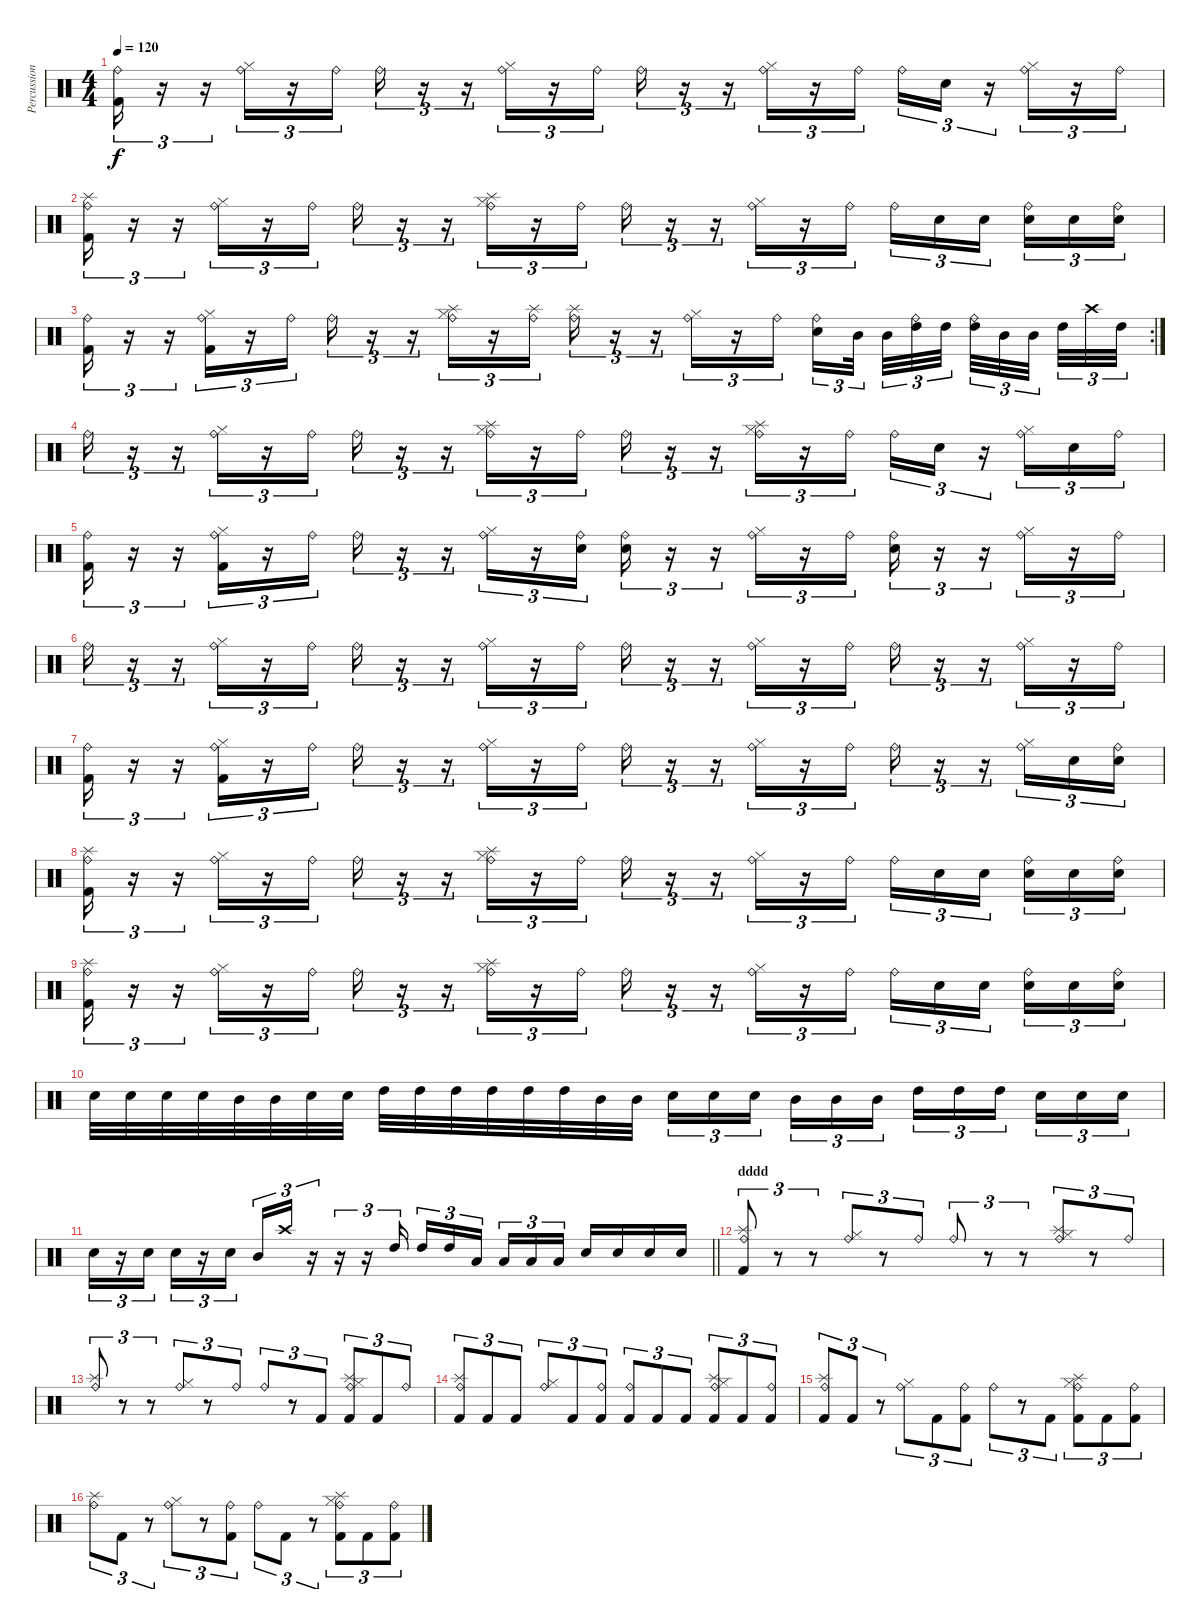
\track ("Percussion" "Percussion") {instrument percussion}
\staff {score}
\articulation defaults
\ts (4 4)
\tempo 120
\clef neutral
\ks c
("Kick (hit) 2" "Ride (bell)").16{tu (3 2) dy f} r.16{tu (3 2)} r.16{tu (3 2)} ("Hi-Hat (closed)" "Ride (bell)").16{tu (3 2)} r.16{tu (3 2)} "Ride (bell)".16{tu (3 2)} "Ride (bell)".16{tu (3 2)} r.16{tu (3 2)} r.16{tu (3 2)} ("Hi-Hat (closed)" "Ride (bell)").16{tu (3 2)} r.16{tu (3 2)} "Ride (bell)".16{tu (3 2)} "Ride (bell)".16{tu (3 2)} r.16{tu (3 2)} r.16{tu (3 2)} ("Hi-Hat (closed)" "Ride (bell)").16{tu (3 2)} r.16{tu (3 2)} "Ride (bell)".16{tu (3 2)} "Ride (bell)".16{tu (3 2)} "Snare (hit) 2".16{tu (3 2)} r.16{tu (3 2)} ("Hi-Hat (closed)" "Ride (bell)").16{tu (3 2)} r.16{tu (3 2)} "Ride (bell)".16{tu (3 2)} |
("Kick (hit) 2" "Ride (bell)" "Splash (hit)").16{tu (3 2)} r.16{tu (3 2)} r.16{tu (3 2)} ("Hi-Hat (closed)" "Ride (bell)").16{tu (3 2)} r.16{tu (3 2)} "Ride (bell)".16{tu (3 2)} "Ride (bell)".16{tu (3 2)} r.16{tu (3 2)} r.16{tu (3 2)} ("Hi-Hat (closed)" "Ride (bell)" "Splash (hit)").16{tu (3 2)} r.16{tu (3 2)} "Ride (bell)".16{tu (3 2)} "Ride (bell)".16{tu (3 2)} r.16{tu (3 2)} r.16{tu (3 2)} ("Hi-Hat (closed)" "Ride (bell)").16{tu (3 2)} r.16{tu (3 2)} "Ride (bell)".16{tu (3 2)} "Ride (bell)".16{tu (3 2)} "Snare (hit) 2".16{tu (3 2)} "Snare (hit) 2".16{tu (3 2) beam splitsecondary} ("Snare (hit) 2" "Ride (bell)").16{tu (3 2)} "Snare (hit) 2".16{tu (3 2)} ("Snare (hit) 2" "Ride (bell)").16{tu (3 2)} |
\rc 2
("Kick (hit) 2" "Ride (bell)").16{tu (3 2)} r.16{tu (3 2)} r.16{tu (3 2)} ("Hi-Hat (closed)" "Ride (bell)" "Kick (hit) 2").16{tu (3 2)} r.16{tu (3 2)} "Ride (bell)".16{tu (3 2)} "Ride (bell)".16{tu (3 2)} r.16{tu (3 2)} r.16{tu (3 2)} ("Hi-Hat (closed)" "Ride (bell)" "Splash (hit)").16{tu (3 2)} r.16{tu (3 2)} ("Ride (bell)" "Splash (hit)").16{tu (3 2)} ("Ride (bell)" "Splash (hit)").16{tu (3 2)} r.16{tu (3 2)} r.16{tu (3 2)} ("Hi-Hat (closed)" "Ride (bell)").16{tu (3 2)} r.16{tu (3 2)} "Ride (bell)".16{tu (3 2)} ("Snare (hit) 2" "Ride (bell)").16{tu (3 2)} "Mid Tom (hit)".32{tu (3 2) beam splitsecondary} "Mid Tom (hit)".32{tu (3 2)} ("High Tom (hit)" "Ride (bell)").32{tu (3 2)} "High Tom (hit)".32{tu (3 2) beam splitsecondary} ("High Tom (hit)" "Ride (bell)").32{tu (3 2)} "Mid Tom (hit)".32{tu (3 2)} "Mid Tom (hit)".32{tu (3 2) beam splitsecondary} "High Tom (hit)".32{tu (3 2)} "Crash high (hit)".32{tu (3 2)} "High Tom (hit)".32{tu (3 2)} |
"Ride (bell)".16{tu (3 2)} r.16{tu (3 2)} r.16{tu (3 2)} ("Hi-Hat (closed)" "Ride (bell)").16{tu (3 2)} r.16{tu (3 2)} "Ride (bell)".16{tu (3 2)} "Ride (bell)".16{tu (3 2)} r.16{tu (3 2)} r.16{tu (3 2)} ("Hi-Hat (closed)" "Ride (bell)" "Splash (hit)").16{tu (3 2)} r.16{tu (3 2)} "Ride (bell)".16{tu (3 2)} "Ride (bell)".16{tu (3 2)} r.16{tu (3 2)} r.16{tu (3 2)} ("Hi-Hat (closed)" "Ride (bell)" "Splash (hit)").16{tu (3 2)} r.16{tu (3 2)} "Ride (bell)".16{tu (3 2)} "Ride (bell)".16{tu (3 2)} "Snare (hit) 2".16{tu (3 2)} r.16{tu (3 2)} ("Hi-Hat (closed)" "Ride (bell)").16{tu (3 2)} "Snare (hit) 2".16{tu (3 2)} "Ride (bell)".16{tu (3 2)} |
("Kick (hit) 2" "Ride (bell)").16{tu (3 2)} r.16{tu (3 2)} r.16{tu (3 2)} ("Hi-Hat (closed)" "Ride (bell)" "Kick (hit) 2").16{tu (3 2)} r.16{tu (3 2)} "Ride (bell)".16{tu (3 2)} "Ride (bell)".16{tu (3 2)} r.16{tu (3 2)} r.16{tu (3 2)} ("Hi-Hat (closed)" "Ride (bell)").16{tu (3 2)} r.16{tu (3 2)} ("Snare (hit) 2" "Ride (bell)").16{tu (3 2)} ("Snare (hit) 2" "Ride (bell)").16{tu (3 2)} r.16{tu (3 2)} r.16{tu (3 2)} ("Hi-Hat (closed)" "Ride (bell)").16{tu (3 2)} r.16{tu (3 2)} "Ride (bell)".16{tu (3 2)} ("Snare (hit) 2" "Ride (bell)").16{tu (3 2)} r.16{tu (3 2)} r.16{tu (3 2)} ("Hi-Hat (closed)" "Ride (bell)").16{tu (3 2)} r.16{tu (3 2)} "Ride (bell)".16{tu (3 2)} |
"Ride (bell)".16{tu (3 2)} r.16{tu (3 2)} r.16{tu (3 2)} ("Hi-Hat (closed)" "Ride (bell)").16{tu (3 2)} r.16{tu (3 2)} "Ride (bell)".16{tu (3 2)} "Ride (bell)".16{tu (3 2)} r.16{tu (3 2)} r.16{tu (3 2)} ("Hi-Hat (closed)" "Ride (bell)").16{tu (3 2)} r.16{tu (3 2)} "Ride (bell)".16{tu (3 2)} "Ride (bell)".16{tu (3 2)} r.16{tu (3 2)} r.16{tu (3 2)} ("Hi-Hat (closed)" "Ride (bell)").16{tu (3 2)} r.16{tu (3 2)} "Ride (bell)".16{tu (3 2)} "Ride (bell)".16{tu (3 2)} r.16{tu (3 2)} r.16{tu (3 2)} ("Hi-Hat (closed)" "Ride (bell)").16{tu (3 2)} r.16{tu (3 2)} "Ride (bell)".16{tu (3 2)} |
("Kick (hit) 2" "Ride (bell)").16{tu (3 2)} r.16{tu (3 2)} r.16{tu (3 2)} ("Hi-Hat (closed)" "Ride (bell)" "Kick (hit) 2").16{tu (3 2)} r.16{tu (3 2)} "Ride (bell)".16{tu (3 2)} "Ride (bell)".16{tu (3 2)} r.16{tu (3 2)} r.16{tu (3 2)} ("Hi-Hat (closed)" "Ride (bell)").16{tu (3 2)} r.16{tu (3 2)} "Ride (bell)".16{tu (3 2)} "Ride (bell)".16{tu (3 2)} r.16{tu (3 2)} r.16{tu (3 2)} ("Hi-Hat (closed)" "Ride (bell)").16{tu (3 2)} r.16{tu (3 2)} "Ride (bell)".16{tu (3 2)} "Ride (bell)".16{tu (3 2)} r.16{tu (3 2)} r.16{tu (3 2)} ("Hi-Hat (closed)" "Ride (bell)").16{tu (3 2)} "Snare (hit) 2".16{tu (3 2)} ("Snare (hit) 2" "Ride (bell)").16{tu (3 2)} |
("Kick (hit) 2" "Ride (bell)" "Splash (hit)").16{tu (3 2)} r.16{tu (3 2)} r.16{tu (3 2)} ("Hi-Hat (closed)" "Ride (bell)").16{tu (3 2)} r.16{tu (3 2)} "Ride (bell)".16{tu (3 2)} "Ride (bell)".16{tu (3 2)} r.16{tu (3 2)} r.16{tu (3 2)} ("Hi-Hat (closed)" "Ride (bell)" "Splash (hit)").16{tu (3 2)} r.16{tu (3 2)} "Ride (bell)".16{tu (3 2)} "Ride (bell)".16{tu (3 2)} r.16{tu (3 2)} r.16{tu (3 2)} ("Hi-Hat (closed)" "Ride (bell)").16{tu (3 2)} r.16{tu (3 2)} "Ride (bell)".16{tu (3 2)} "Ride (bell)".16{tu (3 2)} "Snare (hit) 2".16{tu (3 2)} "Snare (hit) 2".16{tu (3 2) beam splitsecondary} ("Snare (hit) 2" "Ride (bell)").16{tu (3 2)} "Snare (hit) 2".16{tu (3 2)} ("Snare (hit) 2" "Ride (bell)").16{tu (3 2)} |
("Kick (hit) 2" "Ride (bell)" "Splash (hit)").16{tu (3 2)} r.16{tu (3 2)} r.16{tu (3 2)} ("Hi-Hat (closed)" "Ride (bell)").16{tu (3 2)} r.16{tu (3 2)} "Ride (bell)".16{tu (3 2)} "Ride (bell)".16{tu (3 2)} r.16{tu (3 2)} r.16{tu (3 2)} ("Hi-Hat (closed)" "Ride (bell)" "Splash (hit)").16{tu (3 2)} r.16{tu (3 2)} "Ride (bell)".16{tu (3 2)} "Ride (bell)".16{tu (3 2)} r.16{tu (3 2)} r.16{tu (3 2)} ("Hi-Hat (closed)" "Ride (bell)").16{tu (3 2)} r.16{tu (3 2)} "Ride (bell)".16{tu (3 2)} "Ride (bell)".16{tu (3 2)} "Snare (hit) 2".16{tu (3 2)} "Snare (hit) 2".16{tu (3 2) beam splitsecondary} ("Snare (hit) 2" "Ride (bell)").16{tu (3 2)} "Snare (hit) 2".16{tu (3 2)} ("Snare (hit) 2" "Ride (bell)").16{tu (3 2)} |
"Snare (hit) 2".32 "Snare (hit) 2".32 "Snare (hit) 2".32 "Snare (hit) 2".32 "Mid Tom (hit)".32 "Mid Tom (hit)".32 "Snare (hit) 2".32 "Snare (hit) 2".32 "High Tom (hit)".32 "High Tom (hit)".32 "High Tom (hit)".32 "High Tom (hit)".32 "High Tom (hit)".32 "High Tom (hit)".32 "Mid Tom (hit)".32 "Mid Tom (hit)".32 "Snare (hit) 2".16{tu (3 2)} "Snare (hit) 2".16{tu (3 2)} "Snare (hit) 2".16{tu (3 2) beam splitsecondary} "Mid Tom (hit)".16{tu (3 2)} "Mid Tom (hit)".16{tu (3 2)} "Mid Tom (hit)".16{tu (3 2)} "High Tom (hit)".16{tu (3 2)} "High Tom (hit)".16{tu (3 2)} "High Tom (hit)".16{tu (3 2) beam splitsecondary} "Snare (hit) 2".16{tu (3 2)} "Snare (hit) 2".16{tu (3 2)} "Snare (hit) 2".16{tu (3 2)} |
\barLineRight lightlight "Snare (hit) 2".16{tu (3 2)}
r.16{tu (3 2)} "Snare (hit) 2".16{tu (3 2)} "Snare (hit) 2".16{tu (3 2)} r.16{tu (3 2)} "Snare (hit) 2".16{tu (3 2)} "Mid Tom (hit)".16{tu (3 2) beam Up} "Crash high (hit)".16{tu (3 2) beam Up} r.16{tu (3 2) beam Up} r.16{tu (3 2) beam Up} r.16{tu (3 2) beam Up} "High Tom (hit)".16{tu (3 2) beam Up} "High Tom (hit)".16{tu (3 2) beam Up} "High Tom (hit)".16{tu (3 2) beam Up} "Low Tom (hit)".16{tu (3 2) beam Up beam splitsecondary} "Low Tom (hit)".16{tu (3 2) beam Up} "Low Tom (hit)".16{tu (3 2) beam Up} "Low Tom (hit)".16{tu (3 2) beam Up} "Snare (hit) 2".16{beam Up} "Snare (hit) 2".16{beam Up} "Snare (hit) 2".16{beam Up} "Snare (hit) 2".16{beam Up} |
\section ("" "dddd")
("Kick (hit) 2" "Ride (bell)" "Splash (hit)").8{tu (3 2) beam Up} r.8{tu (3 2) beam Up} r.8{tu (3 2) beam Up} ("Hi-Hat (closed)" "Ride (bell)").8{tu (3 2) beam Up} r.8{tu (3 2) beam Up} "Ride (bell)".8{tu (3 2) beam Up} "Ride (bell)".8{tu (3 2) beam Up} r.8{tu (3 2) beam Up} r.8{tu (3 2) beam Up} ("Hi-Hat (closed)" "Ride (bell)" "Splash (hit)").8{tu (3 2) beam Up} r.8{tu (3 2) beam Up} "Ride (bell)".8{tu (3 2) beam Up} |
("Ride (bell)" "Splash (hit)").8{tu (3 2) beam Up} r.8{tu (3 2) beam Up} r.8{tu (3 2) beam Up} ("Hi-Hat (closed)" "Ride (bell)").8{tu (3 2) beam Up} r.8{tu (3 2) beam Up} "Ride (bell)".8{tu (3 2) beam Up} "Ride (bell)".8{tu (3 2) beam Up} r.8{tu (3 2) beam Up} "Kick (hit) 2".8{tu (3 2) beam Up} ("Hi-Hat (closed)" "Kick (hit) 2" "Ride (bell)" "Splash (hit)").8{tu (3 2) beam Up} "Kick (hit) 2".8{tu (3 2) beam Up} "Ride (bell)".8{tu (3 2) beam Up} |
("Kick (hit) 2" "Ride (bell)" "Splash (hit)").8{tu (3 2) beam Up} "Kick (hit) 2".8{tu (3 2) beam Up} "Kick (hit) 2".8{tu (3 2) beam Up} ("Hi-Hat (closed)" "Ride (bell)").8{tu (3 2) beam Up} "Kick (hit) 2".8{tu (3 2) beam Up} ("Kick (hit) 2" "Ride (bell)").8{tu (3 2) beam Up} ("Kick (hit) 2" "Ride (bell)").8{tu (3 2) beam Up} "Kick (hit) 2".8{tu (3 2) beam Up} "Kick (hit) 2".8{tu (3 2) beam Up} ("Hi-Hat (closed)" "Ride (bell)" "Kick (hit) 2" "Splash (hit)").8{tu (3 2) beam Up} "Kick (hit) 2".8{tu (3 2) beam Up} ("Ride (bell)" "Kick (hit) 2").8{tu (3 2) beam Up} |
("Kick (hit) 2" "Ride (bell)" "Splash (hit)").8{tu (3 2) beam Up} "Kick (hit) 2".8{tu (3 2) beam Up} r.8{tu (3 2) beam Up} ("Hi-Hat (closed)" "Ride (bell)").8{tu (3 2)} "Kick (hit) 2".8{tu (3 2)} ("Kick (hit) 2" "Ride (bell)").8{tu (3 2)} "Ride (bell)".8{tu (3 2)} r.8{tu (3 2)} "Kick (hit) 2".8{tu (3 2)} ("Hi-Hat (closed)" "Ride (bell)" "Kick (hit) 2" "Splash (hit)").8{tu (3 2)} "Kick (hit) 2".8{tu (3 2)} ("Ride (bell)" "Kick (hit) 2").8{tu (3 2)} |
("Ride (bell)" "Splash (hit)").8{tu (3 2)} "Kick (hit) 2".8{tu (3 2)} r.8{tu (3 2)} ("Hi-Hat (closed)" "Ride (bell)").8{tu (3 2)} r.8{tu (3 2)} ("Kick (hit) 2" "Ride (bell)").8{tu (3 2)} "Ride (bell)".8{tu (3 2)} "Kick (hit) 2".8{tu (3 2)} r.8{tu (3 2)} ("Hi-Hat (closed)" "Ride (bell)" "Kick (hit) 2" "Splash (hit)").8{tu (3 2)} "Kick (hit) 2".8{tu (3 2)} ("Ride (bell)" "Kick (hit) 2").8{tu (3 2)}
